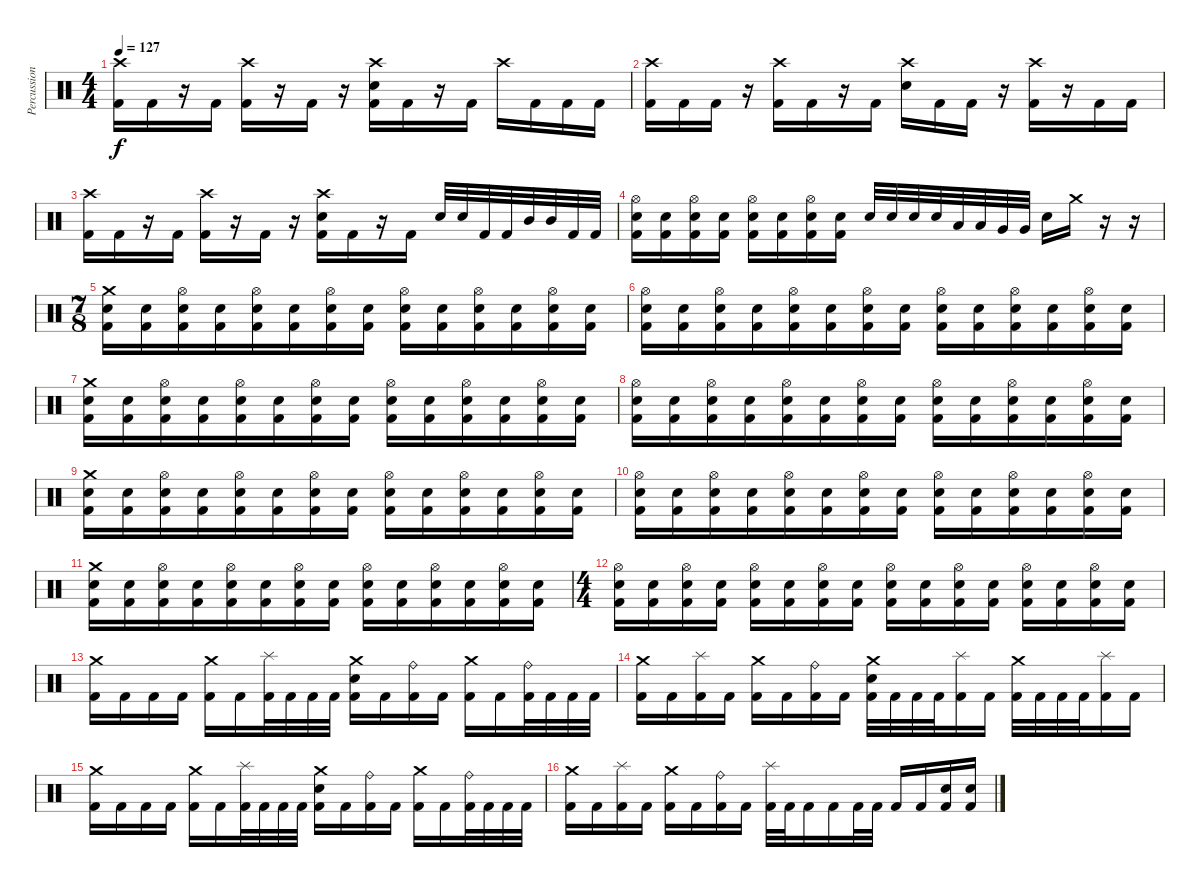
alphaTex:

\track ("Percussion" "Percussion") {instrument percussion}
\staff {score}
\articulation defaults
\ts (4 4)
\tempo 127
\clef neutral
\ks c
("Crash high (hit)" "Kick (hit) 2").16{dy f} "Kick (hit) 2".16 r.16 "Kick (hit) 2".16 ("Crash high (hit)" "Kick (hit) 2").16 r.16 "Kick (hit) 2".16 r.16 ("Crash high (hit)" "Electric Snare (hit)" "Kick (hit) 2").16 "Kick (hit) 2".16 r.16 "Kick (hit) 2".16 "Crash high (hit)".16 "Kick (hit) 2".16 "Kick (hit) 2".16 "Kick (hit) 2".16 |
("Crash high (hit)" "Kick (hit) 2").16 "Kick (hit) 2".16 "Kick (hit) 2".16 r.16 ("Crash high (hit)" "Kick (hit) 2").16 "Kick (hit) 2".16 r.16 "Kick (hit) 2".16 ("Crash high (hit)" "Electric Snare (hit)").16 "Kick (hit) 2".16 "Kick (hit) 2".16 r.16 ("Crash high (hit)" "Kick (hit) 2").16 r.16 "Kick (hit) 2".16 "Kick (hit) 2".16 |
("Crash high (hit)" "Kick (hit) 2").16 "Kick (hit) 2".16 r.16 "Kick (hit) 2".16 ("Crash high (hit)" "Kick (hit) 2").16 r.16 "Kick (hit) 2".16 r.16 ("Crash high (hit)" "Electric Snare (hit)" "Kick (hit) 2").16 "Kick (hit) 2".16 r.16 "Kick (hit) 2".16 "Electric Snare (hit)".32 "Electric Snare (hit)".32 "Kick (hit) 2".32 "Kick (hit) 2".32 "Mid Tom (hit)".32 "Mid Tom (hit)".32 "Kick (hit) 2".32 "Kick (hit) 2".32 |
("Hi-Hat (open)" "Electric Snare (hit)" "Kick (hit) 2").16 ("Electric Snare (hit)" "Kick (hit) 2").16 ("Hi-Hat (open)" "Electric Snare (hit)" "Kick (hit) 2").16 ("Electric Snare (hit)" "Kick (hit) 2").16 ("Hi-Hat (open)" "Electric Snare (hit)" "Kick (hit) 2").16 ("Electric Snare (hit)" "Kick (hit) 2").16 ("Hi-Hat (open)" "Electric Snare (hit)" "Kick (hit) 2").16 ("Electric Snare (hit)" "Kick (hit) 2").16 "Electric Snare (hit)".32 "Electric Snare (hit)".32 "Electric Snare (hit)".32 "Electric Snare (hit)".32 "Low Tom (hit)".32 "Low Tom (hit)".32 "Very Low Tom (hit)".32 "Very Low Tom (hit)".32 "Electric Snare (hit)".16 "Crash medium (hit)".16 r.16{volume 0} r.16 |
\ts (7 8)
("Crash medium (hit)" "Electric Snare (hit)" "Kick (hit) 2").16{volume 13} ("Electric Snare (hit)" "Kick (hit) 2").16 ("Hi-Hat (open)" "Electric Snare (hit)" "Kick (hit) 2").16 ("Electric Snare (hit)" "Kick (hit) 2").16 ("Hi-Hat (open)" "Electric Snare (hit)" "Kick (hit) 2").16 ("Electric Snare (hit)" "Kick (hit) 2").16 ("Hi-Hat (open)" "Electric Snare (hit)" "Kick (hit) 2").16 ("Electric Snare (hit)" "Kick (hit) 2").16 ("Hi-Hat (open)" "Electric Snare (hit)" "Kick (hit) 2").16 ("Electric Snare (hit)" "Kick (hit) 2").16 ("Hi-Hat (open)" "Electric Snare (hit)" "Kick (hit) 2").16 ("Electric Snare (hit)" "Kick (hit) 2").16 ("Hi-Hat (open)" "Electric Snare (hit)" "Kick (hit) 2").16 ("Electric Snare (hit)" "Kick (hit) 2").16 |
("Hi-Hat (open)" "Electric Snare (hit)" "Kick (hit) 2").16{volume 13} ("Electric Snare (hit)" "Kick (hit) 2").16 ("Hi-Hat (open)" "Electric Snare (hit)" "Kick (hit) 2").16 ("Electric Snare (hit)" "Kick (hit) 2").16 ("Hi-Hat (open)" "Electric Snare (hit)" "Kick (hit) 2").16 ("Electric Snare (hit)" "Kick (hit) 2").16 ("Hi-Hat (open)" "Electric Snare (hit)" "Kick (hit) 2").16 ("Electric Snare (hit)" "Kick (hit) 2").16 ("Hi-Hat (open)" "Electric Snare (hit)" "Kick (hit) 2").16 ("Electric Snare (hit)" "Kick (hit) 2").16 ("Hi-Hat (open)" "Electric Snare (hit)" "Kick (hit) 2").16 ("Electric Snare (hit)" "Kick (hit) 2").16 ("Hi-Hat (open)" "Electric Snare (hit)" "Kick (hit) 2").16 ("Electric Snare (hit)" "Kick (hit) 2").16 |
("Crash medium (hit)" "Electric Snare (hit)" "Kick (hit) 2").16{volume 13} ("Electric Snare (hit)" "Kick (hit) 2").16 ("Hi-Hat (open)" "Electric Snare (hit)" "Kick (hit) 2").16 ("Electric Snare (hit)" "Kick (hit) 2").16 ("Hi-Hat (open)" "Electric Snare (hit)" "Kick (hit) 2").16 ("Electric Snare (hit)" "Kick (hit) 2").16 ("Hi-Hat (open)" "Electric Snare (hit)" "Kick (hit) 2").16 ("Electric Snare (hit)" "Kick (hit) 2").16 ("Hi-Hat (open)" "Electric Snare (hit)" "Kick (hit) 2").16 ("Electric Snare (hit)" "Kick (hit) 2").16 ("Hi-Hat (open)" "Electric Snare (hit)" "Kick (hit) 2").16 ("Electric Snare (hit)" "Kick (hit) 2").16 ("Hi-Hat (open)" "Electric Snare (hit)" "Kick (hit) 2").16 ("Electric Snare (hit)" "Kick (hit) 2").16 |
("Hi-Hat (open)" "Electric Snare (hit)" "Kick (hit) 2").16{volume 13} ("Electric Snare (hit)" "Kick (hit) 2").16 ("Hi-Hat (open)" "Electric Snare (hit)" "Kick (hit) 2").16 ("Electric Snare (hit)" "Kick (hit) 2").16 ("Hi-Hat (open)" "Electric Snare (hit)" "Kick (hit) 2").16 ("Electric Snare (hit)" "Kick (hit) 2").16 ("Hi-Hat (open)" "Electric Snare (hit)" "Kick (hit) 2").16 ("Electric Snare (hit)" "Kick (hit) 2").16 ("Hi-Hat (open)" "Electric Snare (hit)" "Kick (hit) 2").16 ("Electric Snare (hit)" "Kick (hit) 2").16 ("Hi-Hat (open)" "Electric Snare (hit)" "Kick (hit) 2").16 ("Electric Snare (hit)" "Kick (hit) 2").16 ("Hi-Hat (open)" "Electric Snare (hit)" "Kick (hit) 2").16 ("Electric Snare (hit)" "Kick (hit) 2").16 |
("Crash medium (hit)" "Electric Snare (hit)" "Kick (hit) 2").16{volume 13} ("Electric Snare (hit)" "Kick (hit) 2").16 ("Hi-Hat (open)" "Electric Snare (hit)" "Kick (hit) 2").16 ("Electric Snare (hit)" "Kick (hit) 2").16 ("Hi-Hat (open)" "Electric Snare (hit)" "Kick (hit) 2").16 ("Electric Snare (hit)" "Kick (hit) 2").16 ("Hi-Hat (open)" "Electric Snare (hit)" "Kick (hit) 2").16 ("Electric Snare (hit)" "Kick (hit) 2").16 ("Hi-Hat (open)" "Electric Snare (hit)" "Kick (hit) 2").16 ("Electric Snare (hit)" "Kick (hit) 2").16 ("Hi-Hat (open)" "Electric Snare (hit)" "Kick (hit) 2").16 ("Electric Snare (hit)" "Kick (hit) 2").16 ("Hi-Hat (open)" "Electric Snare (hit)" "Kick (hit) 2").16 ("Electric Snare (hit)" "Kick (hit) 2").16 |
("Hi-Hat (open)" "Electric Snare (hit)" "Kick (hit) 2").16{volume 13} ("Electric Snare (hit)" "Kick (hit) 2").16 ("Hi-Hat (open)" "Electric Snare (hit)" "Kick (hit) 2").16 ("Electric Snare (hit)" "Kick (hit) 2").16 ("Hi-Hat (open)" "Electric Snare (hit)" "Kick (hit) 2").16 ("Electric Snare (hit)" "Kick (hit) 2").16 ("Hi-Hat (open)" "Electric Snare (hit)" "Kick (hit) 2").16 ("Electric Snare (hit)" "Kick (hit) 2").16 ("Hi-Hat (open)" "Electric Snare (hit)" "Kick (hit) 2").16 ("Electric Snare (hit)" "Kick (hit) 2").16 ("Hi-Hat (open)" "Electric Snare (hit)" "Kick (hit) 2").16 ("Electric Snare (hit)" "Kick (hit) 2").16 ("Hi-Hat (open)" "Electric Snare (hit)" "Kick (hit) 2").16 ("Electric Snare (hit)" "Kick (hit) 2").16 |
("Crash medium (hit)" "Electric Snare (hit)" "Kick (hit) 2").16{volume 13} ("Electric Snare (hit)" "Kick (hit) 2").16 ("Hi-Hat (open)" "Electric Snare (hit)" "Kick (hit) 2").16 ("Electric Snare (hit)" "Kick (hit) 2").16 ("Hi-Hat (open)" "Electric Snare (hit)" "Kick (hit) 2").16 ("Electric Snare (hit)" "Kick (hit) 2").16 ("Hi-Hat (open)" "Electric Snare (hit)" "Kick (hit) 2").16 ("Electric Snare (hit)" "Kick (hit) 2").16 ("Hi-Hat (open)" "Electric Snare (hit)" "Kick (hit) 2").16 ("Electric Snare (hit)" "Kick (hit) 2").16 ("Hi-Hat (open)" "Electric Snare (hit)" "Kick (hit) 2").16 ("Electric Snare (hit)" "Kick (hit) 2").16 ("Hi-Hat (open)" "Electric Snare (hit)" "Kick (hit) 2").16 ("Electric Snare (hit)" "Kick (hit) 2").16 |
\ts (4 4)
("Hi-Hat (open)" "Electric Snare (hit)" "Kick (hit) 2").16{volume 13} ("Electric Snare (hit)" "Kick (hit) 2").16 ("Hi-Hat (open)" "Electric Snare (hit)" "Kick (hit) 2").16 ("Electric Snare (hit)" "Kick (hit) 2").16 ("Hi-Hat (open)" "Electric Snare (hit)" "Kick (hit) 2").16 ("Electric Snare (hit)" "Kick (hit) 2").16 ("Hi-Hat (open)" "Electric Snare (hit)" "Kick (hit) 2").16 ("Electric Snare (hit)" "Kick (hit) 2").16 ("Hi-Hat (open)" "Electric Snare (hit)" "Kick (hit) 2").16 ("Electric Snare (hit)" "Kick (hit) 2").16 ("Hi-Hat (open)" "Electric Snare (hit)" "Kick (hit) 2").16 ("Electric Snare (hit)" "Kick (hit) 2").16 ("Hi-Hat (open)" "Electric Snare (hit)" "Kick (hit) 2").16 ("Electric Snare (hit)" "Kick (hit) 2").16 ("Hi-Hat (open)" "Electric Snare (hit)" "Kick (hit) 2").16 ("Electric Snare (hit)" "Kick (hit) 2").16 |
("Crash medium (hit)" "Kick (hit) 2").16 "Kick (hit) 2".16 "Kick (hit) 2".16 "Kick (hit) 2".16 ("Crash medium (hit)" "Kick (hit) 2").16 "Kick (hit) 2".16 ("Splash (hit)" "Kick (hit) 2").32 "Kick (hit) 2".32 "Kick (hit) 2".32 "Kick (hit) 2".32 ("Crash medium (hit)" "Electric Snare (hit)" "Kick (hit) 2").16 "Kick (hit) 2".16 ("Ride (bell)" "Kick (hit) 2").16 "Kick (hit) 2".16 ("Crash medium (hit)" "Kick (hit) 2").16 "Kick (hit) 2".16 ("Ride (bell)" "Kick (hit) 2").32 "Kick (hit) 2".32 "Kick (hit) 2".32 "Kick (hit) 2".32 |
("Crash medium (hit)" "Kick (hit) 2").16 "Kick (hit) 2".16 ("Splash (hit)" "Kick (hit) 2").16 "Kick (hit) 2".16 ("Crash medium (hit)" "Kick (hit) 2").16 "Kick (hit) 2".16 ("Ride (bell)" "Kick (hit) 2").16 "Kick (hit) 2".16 ("Crash medium (hit)" "Electric Snare (hit)" "Kick (hit) 2").32 "Kick (hit) 2".32 "Kick (hit) 2".32 "Kick (hit) 2".32 ("Splash (hit)" "Kick (hit) 2").16 "Kick (hit) 2".16 ("Crash medium (hit)" "Kick (hit) 2").32 "Kick (hit) 2".32 "Kick (hit) 2".32 "Kick (hit) 2".32 ("Splash (hit)" "Kick (hit) 2").16 "Kick (hit) 2".16 |
("Crash medium (hit)" "Kick (hit) 2").16 "Kick (hit) 2".16 "Kick (hit) 2".16 "Kick (hit) 2".16 ("Crash medium (hit)" "Kick (hit) 2").16 "Kick (hit) 2".16 ("Splash (hit)" "Kick (hit) 2").32 "Kick (hit) 2".32 "Kick (hit) 2".32 "Kick (hit) 2".32 ("Crash medium (hit)" "Electric Snare (hit)" "Kick (hit) 2").16 "Kick (hit) 2".16 ("Ride (bell)" "Kick (hit) 2").16 "Kick (hit) 2".16 ("Crash medium (hit)" "Kick (hit) 2").16 "Kick (hit) 2".16 ("Ride (bell)" "Kick (hit) 2").32 "Kick (hit) 2".32 "Kick (hit) 2".32 "Kick (hit) 2".32 |
("Crash medium (hit)" "Kick (hit) 2").16 "Kick (hit) 2".16 ("Splash (hit)" "Kick (hit) 2").16 "Kick (hit) 2".16 ("Crash medium (hit)" "Kick (hit) 2").16 "Kick (hit) 2".16 ("Ride (bell)" "Kick (hit) 2").16 "Kick (hit) 2".16 ("Splash (hit)" "Kick (hit) 2").32 "Kick (hit) 2".32 "Kick (hit) 2".16 "Kick (hit) 2".16 "Kick (hit) 2".32 "Kick (hit) 2".32 "Kick (hit) 2".16 "Kick (hit) 2".16 ("Snare (hit) 2" "Kick (hit) 2").16 ("Snare (hit) 2" "Kick (hit) 2").16
